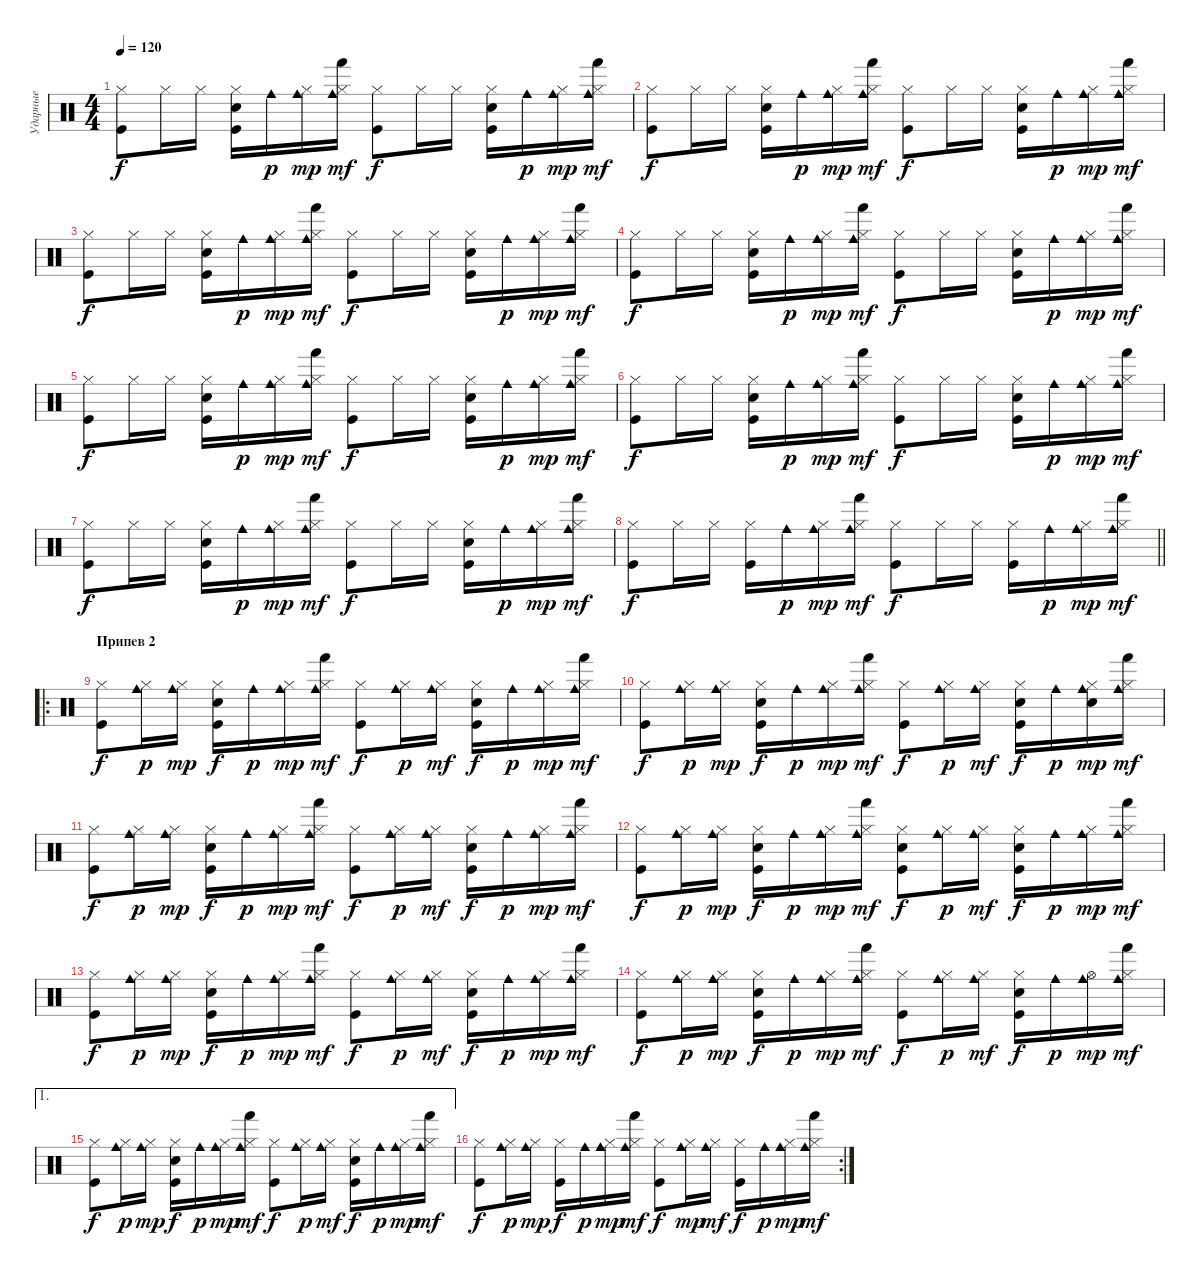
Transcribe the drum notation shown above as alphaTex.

\track ("Ударные" "Ударные") {instrument percussion}
\staff {score}
\articulation defaults
\ts (4 4)
\tempo 120
\clef neutral
\ks c
("Hi-Hat (closed)" "Kick (hit)").8{dy f} "Hi-Hat (closed)".16 "Hi-Hat (closed)".16 ("Hi-Hat (closed)" "Snare (hit) 2" "Kick (hit)").16 "Cowbell medium (hit)".16{dy p} ("Hi-Hat (closed)" "Cowbell medium (hit)").16{dy mp} ("Hi-Hat (closed)" "Hand (hit)" "Cowbell medium (hit)").16{dy mf} ("Hi-Hat (closed)" "Kick (hit)").8{dy f} "Hi-Hat (closed)".16 "Hi-Hat (closed)".16 ("Hi-Hat (closed)" "Snare (hit) 2" "Kick (hit)").16 "Cowbell medium (hit)".16{dy p} ("Hi-Hat (closed)" "Cowbell medium (hit)").16{dy mp} ("Hi-Hat (closed)" "Hand (hit)" "Cowbell medium (hit)").16{dy mf} |
("Hi-Hat (closed)" "Kick (hit)").8{dy f} "Hi-Hat (closed)".16 "Hi-Hat (closed)".16 ("Hi-Hat (closed)" "Snare (hit) 2" "Kick (hit)").16 "Cowbell medium (hit)".16{dy p} ("Hi-Hat (closed)" "Cowbell medium (hit)").16{dy mp} ("Hi-Hat (closed)" "Hand (hit)" "Cowbell medium (hit)").16{dy mf} ("Hi-Hat (closed)" "Kick (hit)").8{dy f} "Hi-Hat (closed)".16 "Hi-Hat (closed)".16 ("Hi-Hat (closed)" "Snare (hit) 2" "Kick (hit)").16 "Cowbell medium (hit)".16{dy p} ("Hi-Hat (closed)" "Cowbell medium (hit)").16{dy mp} ("Hi-Hat (closed)" "Hand (hit)" "Cowbell medium (hit)").16{dy mf} |
("Hi-Hat (closed)" "Kick (hit)").8{dy f} "Hi-Hat (closed)".16 "Hi-Hat (closed)".16 ("Hi-Hat (closed)" "Snare (hit) 2" "Kick (hit)").16 "Cowbell medium (hit)".16{dy p} ("Hi-Hat (closed)" "Cowbell medium (hit)").16{dy mp} ("Hi-Hat (closed)" "Hand (hit)" "Cowbell medium (hit)").16{dy mf} ("Hi-Hat (closed)" "Kick (hit)").8{dy f} "Hi-Hat (closed)".16 "Hi-Hat (closed)".16 ("Hi-Hat (closed)" "Snare (hit) 2" "Kick (hit)").16 "Cowbell medium (hit)".16{dy p} ("Hi-Hat (closed)" "Cowbell medium (hit)").16{dy mp} ("Hi-Hat (closed)" "Hand (hit)" "Cowbell medium (hit)").16{dy mf} |
("Hi-Hat (closed)" "Kick (hit)").8{dy f} "Hi-Hat (closed)".16 "Hi-Hat (closed)".16 ("Hi-Hat (closed)" "Snare (hit) 2" "Kick (hit)").16 "Cowbell medium (hit)".16{dy p} ("Hi-Hat (closed)" "Cowbell medium (hit)").16{dy mp} ("Hi-Hat (closed)" "Hand (hit)" "Cowbell medium (hit)").16{dy mf} ("Hi-Hat (closed)" "Kick (hit)").8{dy f} "Hi-Hat (closed)".16 "Hi-Hat (closed)".16 ("Hi-Hat (closed)" "Snare (hit) 2" "Kick (hit)").16 "Cowbell medium (hit)".16{dy p} ("Hi-Hat (closed)" "Cowbell medium (hit)").16{dy mp} ("Hi-Hat (closed)" "Hand (hit)" "Cowbell medium (hit)").16{dy mf} |
("Hi-Hat (closed)" "Kick (hit)").8{dy f} "Hi-Hat (closed)".16 "Hi-Hat (closed)".16 ("Hi-Hat (closed)" "Snare (hit) 2" "Kick (hit)").16 "Cowbell medium (hit)".16{dy p} ("Hi-Hat (closed)" "Cowbell medium (hit)").16{dy mp} ("Hi-Hat (closed)" "Hand (hit)" "Cowbell medium (hit)").16{dy mf} ("Hi-Hat (closed)" "Kick (hit)").8{dy f} "Hi-Hat (closed)".16 "Hi-Hat (closed)".16 ("Hi-Hat (closed)" "Snare (hit) 2" "Kick (hit)").16 "Cowbell medium (hit)".16{dy p} ("Hi-Hat (closed)" "Cowbell medium (hit)").16{dy mp} ("Hi-Hat (closed)" "Hand (hit)" "Cowbell medium (hit)").16{dy mf} |
("Hi-Hat (closed)" "Kick (hit)").8{dy f} "Hi-Hat (closed)".16 "Hi-Hat (closed)".16 ("Hi-Hat (closed)" "Snare (hit) 2" "Kick (hit)").16 "Cowbell medium (hit)".16{dy p} ("Hi-Hat (closed)" "Cowbell medium (hit)").16{dy mp} ("Hi-Hat (closed)" "Hand (hit)" "Cowbell medium (hit)").16{dy mf} ("Hi-Hat (closed)" "Kick (hit)").8{dy f} "Hi-Hat (closed)".16 "Hi-Hat (closed)".16 ("Hi-Hat (closed)" "Snare (hit) 2" "Kick (hit)").16 "Cowbell medium (hit)".16{dy p} ("Hi-Hat (closed)" "Cowbell medium (hit)").16{dy mp} ("Hi-Hat (closed)" "Hand (hit)" "Cowbell medium (hit)").16{dy mf} |
("Hi-Hat (closed)" "Kick (hit)").8{dy f} "Hi-Hat (closed)".16 "Hi-Hat (closed)".16 ("Hi-Hat (closed)" "Snare (hit) 2" "Kick (hit)").16 "Cowbell medium (hit)".16{dy p} ("Hi-Hat (closed)" "Cowbell medium (hit)").16{dy mp} ("Hi-Hat (closed)" "Hand (hit)" "Cowbell medium (hit)").16{dy mf} ("Hi-Hat (closed)" "Kick (hit)").8{dy f} "Hi-Hat (closed)".16 "Hi-Hat (closed)".16 ("Hi-Hat (closed)" "Snare (hit) 2" "Kick (hit)").16 "Cowbell medium (hit)".16{dy p} ("Hi-Hat (closed)" "Cowbell medium (hit)").16{dy mp} ("Hi-Hat (closed)" "Hand (hit)" "Cowbell medium (hit)").16{dy mf} |
\barLineRight lightlight
("Hi-Hat (closed)" "Kick (hit)").8{dy f} "Hi-Hat (closed)".16 "Hi-Hat (closed)".16 ("Hi-Hat (closed)" "Kick (hit)").16 "Cowbell medium (hit)".16{dy p} ("Hi-Hat (closed)" "Cowbell medium (hit)").16{dy mp} ("Hi-Hat (closed)" "Hand (hit)" "Cowbell medium (hit)").16{dy mf} ("Hi-Hat (closed)" "Kick (hit)").8{dy f} "Hi-Hat (closed)".16 "Hi-Hat (closed)".16 ("Hi-Hat (closed)" "Kick (hit)").16 "Cowbell medium (hit)".16{dy p} ("Hi-Hat (closed)" "Cowbell medium (hit)").16{dy mp} ("Hi-Hat (closed)" "Hand (hit)" "Cowbell medium (hit)").16{dy mf} |
\ro
\section ("" "Припев 2")
("Hi-Hat (closed)" "Kick (hit)").8{dy f} ("Hi-Hat (closed)" "Cowbell medium (hit)").16{dy p} ("Hi-Hat (closed)" "Cowbell medium (hit)").16{dy mp} ("Hi-Hat (closed)" "Snare (hit) 2" "Kick (hit)").16{dy f} "Cowbell medium (hit)".16{dy p} ("Hi-Hat (closed)" "Cowbell medium (hit)").16{dy mp} ("Hi-Hat (closed)" "Hand (hit)" "Cowbell medium (hit)").16{dy mf} ("Hi-Hat (closed)" "Kick (hit)").8{dy f} ("Hi-Hat (closed)" "Cowbell medium (hit)").16{dy p} ("Hi-Hat (closed)" "Cowbell medium (hit)").16{dy mf} ("Hi-Hat (closed)" "Snare (hit) 2" "Kick (hit)").16{dy f} "Cowbell medium (hit)".16{dy p} ("Hi-Hat (closed)" "Cowbell medium (hit)").16{dy mp} ("Hi-Hat (closed)" "Hand (hit)" "Cowbell medium (hit)").16{dy mf} |
("Hi-Hat (closed)" "Kick (hit)").8{dy f} ("Hi-Hat (closed)" "Cowbell medium (hit)").16{dy p} ("Hi-Hat (closed)" "Cowbell medium (hit)").16{dy mp} ("Hi-Hat (closed)" "Snare (hit) 2" "Kick (hit)").16{dy f} "Cowbell medium (hit)".16{dy p} ("Hi-Hat (closed)" "Cowbell medium (hit)").16{dy mp} ("Hi-Hat (closed)" "Hand (hit)" "Cowbell medium (hit)").16{dy mf} ("Hi-Hat (closed)" "Kick (hit)").8{dy f} ("Hi-Hat (closed)" "Cowbell medium (hit)").16{dy p} ("Hi-Hat (closed)" "Cowbell medium (hit)").16{dy mf} ("Hi-Hat (closed)" "Snare (hit) 2" "Kick (hit)").16{dy f} "Cowbell medium (hit)".16{dy p} ("Hi-Hat (closed)" "Snare (hit) 2" "Cowbell medium (hit)").16{dy mp} ("Hi-Hat (closed)" "Hand (hit)" "Cowbell medium (hit)").16{dy mf} |
("Hi-Hat (closed)" "Kick (hit)").8{dy f} ("Hi-Hat (closed)" "Cowbell medium (hit)").16{dy p} ("Hi-Hat (closed)" "Cowbell medium (hit)").16{dy mp} ("Hi-Hat (closed)" "Snare (hit) 2" "Kick (hit)").16{dy f} "Cowbell medium (hit)".16{dy p} ("Hi-Hat (closed)" "Cowbell medium (hit)").16{dy mp} ("Hi-Hat (closed)" "Hand (hit)" "Cowbell medium (hit)").16{dy mf} ("Hi-Hat (closed)" "Kick (hit)").8{dy f} ("Hi-Hat (closed)" "Cowbell medium (hit)").16{dy p} ("Hi-Hat (closed)" "Cowbell medium (hit)").16{dy mf} ("Hi-Hat (closed)" "Snare (hit) 2" "Kick (hit)").16{dy f} "Cowbell medium (hit)".16{dy p} ("Hi-Hat (closed)" "Cowbell medium (hit)").16{dy mp} ("Hi-Hat (closed)" "Hand (hit)" "Cowbell medium (hit)").16{dy mf} |
("Hi-Hat (closed)" "Kick (hit)").8{dy f} ("Hi-Hat (closed)" "Cowbell medium (hit)").16{dy p} ("Hi-Hat (closed)" "Cowbell medium (hit)").16{dy mp} ("Hi-Hat (closed)" "Snare (hit) 2" "Kick (hit)").16{dy f} "Cowbell medium (hit)".16{dy p} ("Hi-Hat (closed)" "Cowbell medium (hit)").16{dy mp} ("Hi-Hat (closed)" "Hand (hit)" "Cowbell medium (hit)").16{dy mf} ("Hi-Hat (closed)" "Snare (hit) 2" "Kick (hit)").8{dy f} ("Hi-Hat (closed)" "Cowbell medium (hit)").16{dy p} ("Hi-Hat (closed)" "Cowbell medium (hit)").16{dy mf} ("Hi-Hat (closed)" "Snare (hit) 2" "Kick (hit)").16{dy f} "Cowbell medium (hit)".16{dy p} ("Hi-Hat (closed)" "Cowbell medium (hit)").16{dy mp} ("Hi-Hat (closed)" "Hand (hit)" "Cowbell medium (hit)").16{dy mf} |
("Hi-Hat (closed)" "Kick (hit)").8{dy f} ("Hi-Hat (closed)" "Cowbell medium (hit)").16{dy p} ("Hi-Hat (closed)" "Cowbell medium (hit)").16{dy mp} ("Hi-Hat (closed)" "Snare (hit) 2" "Kick (hit)").16{dy f} "Cowbell medium (hit)".16{dy p} ("Hi-Hat (closed)" "Cowbell medium (hit)").16{dy mp} ("Hi-Hat (closed)" "Hand (hit)" "Cowbell medium (hit)").16{dy mf} ("Hi-Hat (closed)" "Kick (hit)").8{dy f} ("Hi-Hat (closed)" "Cowbell medium (hit)").16{dy p} ("Hi-Hat (closed)" "Cowbell medium (hit)").16{dy mf} ("Hi-Hat (closed)" "Snare (hit) 2" "Kick (hit)").16{dy f} "Cowbell medium (hit)".16{dy p} ("Hi-Hat (closed)" "Cowbell medium (hit)").16{dy mp} ("Hi-Hat (closed)" "Hand (hit)" "Cowbell medium (hit)").16{dy mf} |
("Hi-Hat (closed)" "Kick (hit)").8{dy f} ("Hi-Hat (closed)" "Cowbell medium (hit)").16{dy p} ("Hi-Hat (closed)" "Cowbell medium (hit)").16{dy mp} ("Hi-Hat (closed)" "Snare (hit) 2" "Kick (hit)").16{dy f} "Cowbell medium (hit)".16{dy p} ("Hi-Hat (closed)" "Cowbell medium (hit)").16{dy mp} ("Hi-Hat (closed)" "Hand (hit)" "Cowbell medium (hit)").16{dy mf} ("Hi-Hat (closed)" "Kick (hit)").8{dy f} ("Hi-Hat (closed)" "Cowbell medium (hit)").16{dy p} ("Hi-Hat (closed)" "Cowbell medium (hit)").16{dy mf} ("Hi-Hat (closed)" "Snare (hit) 2" "Kick (hit)").16{dy f} "Cowbell medium (hit)".16{dy p} ("Hi-Hat (open)" "Cowbell medium (hit)").16{dy mp} ("Hi-Hat (closed)" "Hand (hit)" "Cowbell medium (hit)").16{dy mf} |
\ae 1
("Hi-Hat (closed)" "Kick (hit)").8{dy f} ("Hi-Hat (closed)" "Cowbell medium (hit)").16{dy p} ("Hi-Hat (closed)" "Cowbell medium (hit)").16{dy mp} ("Hi-Hat (closed)" "Snare (hit) 2" "Kick (hit)").16{dy f} "Cowbell medium (hit)".16{dy p} ("Hi-Hat (closed)" "Cowbell medium (hit)").16{dy mp} ("Hi-Hat (closed)" "Hand (hit)" "Cowbell medium (hit)").16{dy mf} ("Hi-Hat (closed)" "Kick (hit)").8{dy f} ("Hi-Hat (closed)" "Cowbell medium (hit)").16{dy p} ("Hi-Hat (closed)" "Cowbell medium (hit)").16{dy mf} ("Hi-Hat (closed)" "Snare (hit) 2" "Kick (hit)").16{dy f} "Cowbell medium (hit)".16{dy p} ("Hi-Hat (closed)" "Cowbell medium (hit)").16{dy mp} ("Hi-Hat (closed)" "Hand (hit)" "Cowbell medium (hit)").16{dy mf} |
\rc 2
("Hi-Hat (closed)" "Kick (hit)").8{dy f} ("Hi-Hat (closed)" "Cowbell medium (hit)").16{dy p} ("Hi-Hat (closed)" "Cowbell medium (hit)").16{dy mp} ("Hi-Hat (closed)" "Kick (hit)").16{dy f} "Cowbell medium (hit)".16{dy p} ("Hi-Hat (closed)" "Cowbell medium (hit)").16{dy mp} ("Hi-Hat (closed)" "Hand (hit)" "Cowbell medium (hit)").16{dy mf} ("Hi-Hat (closed)" "Kick (hit)").8{dy f} ("Hi-Hat (closed)" "Cowbell medium (hit)").16{dy mp} ("Hi-Hat (closed)" "Cowbell medium (hit)").16{dy mf} ("Hi-Hat (closed)" "Kick (hit)").16{dy f} "Cowbell medium (hit)".16{dy p} ("Hi-Hat (closed)" "Cowbell medium (hit)").16{dy mp} ("Hi-Hat (closed)" "Hand (hit)" "Cowbell medium (hit)").16{dy mf}
